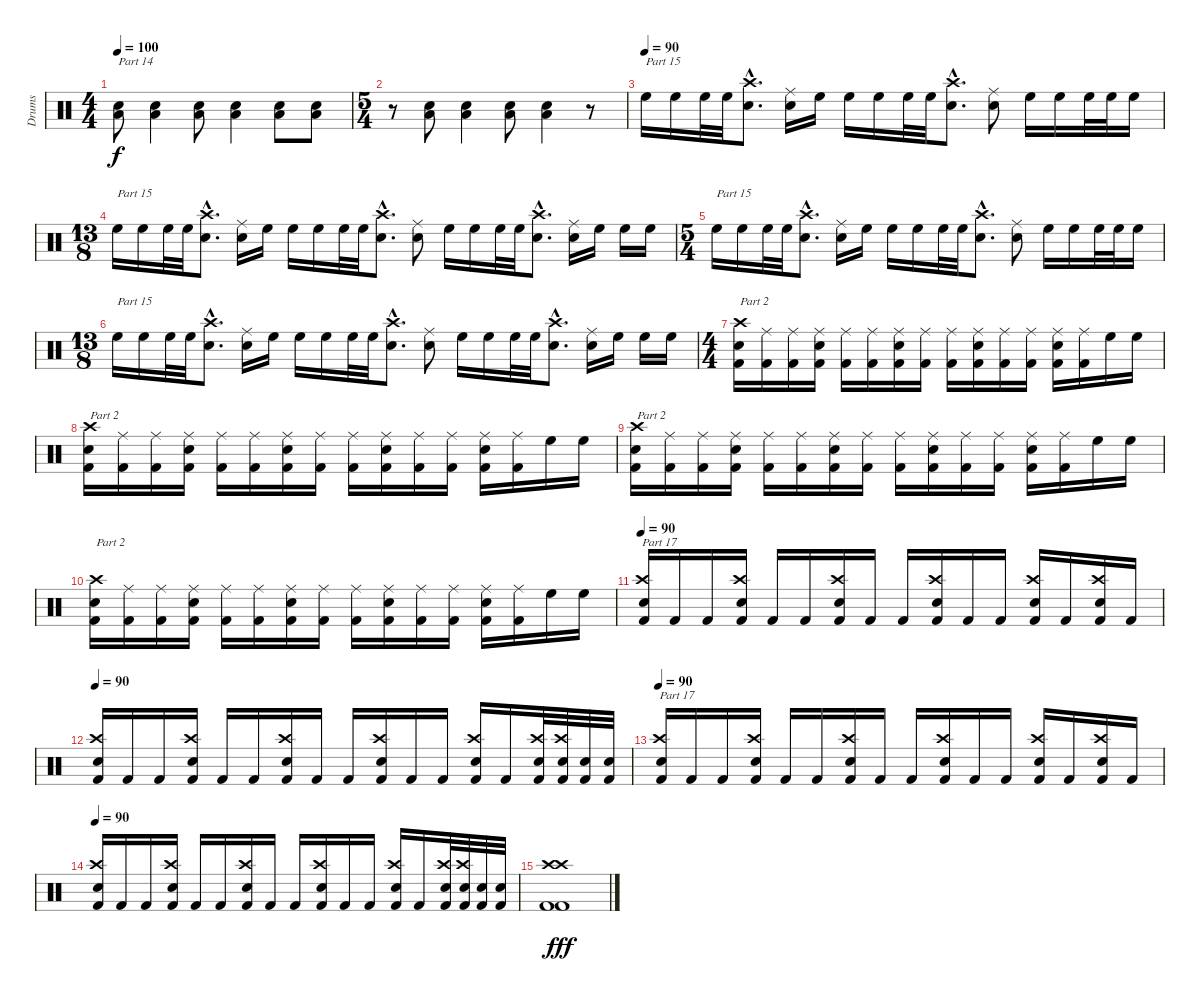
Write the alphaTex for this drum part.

\track ("Drums" "Drums") {instrument percussion}
\staff {score}
\articulation defaults
\ts (4 4)
\tempo 100
\clef neutral
\ks c
("Low Floor Tom (hit)" "Snare (hit) 2").8{txt "Part 14" dy f} ("Low Floor Tom (hit)" "Snare (hit) 2").4 ("Low Floor Tom (hit)" "Snare (hit) 2").8 ("Low Floor Tom (hit)" "Snare (hit) 2").4 ("Low Floor Tom (hit)" "Snare (hit) 2").8 ("Low Floor Tom (hit)" "Snare (hit) 2").8 |
\ts (5 4)
r.8 ("Low Floor Tom (hit)" "Snare (hit) 2").8 ("Low Floor Tom (hit)" "Snare (hit) 2").4 ("Low Floor Tom (hit)" "Snare (hit) 2").8 ("Low Floor Tom (hit)" "Snare (hit) 2").4 r.8 |
\tempo (90)
"High Floor Tom (hit)".16{txt "Part 15"} "High Floor Tom (hit)".16 "High Floor Tom (hit)".32 "High Floor Tom (hit)".32 ("Crash high (hit)"{hac} "Snare (hit) 2"{hac}).8{d} ("Ride (middle)" "Snare (hit) 2").16 "High Floor Tom (hit)".16 "High Floor Tom (hit)".16 "High Floor Tom (hit)".16 "High Floor Tom (hit)".32 "High Floor Tom (hit)".32 ("Crash high (hit)"{hac} "Snare (hit) 2"{hac}).8{d} ("Ride (middle)" "Snare (hit) 2").8 "High Floor Tom (hit)".16 "High Floor Tom (hit)".16 "High Floor Tom (hit)".32 "High Floor Tom (hit)".32 "High Floor Tom (hit)".16 |
\ts (13 8)
"High Floor Tom (hit)".16{txt "Part 15"} "High Floor Tom (hit)".16 "High Floor Tom (hit)".32 "High Floor Tom (hit)".32 ("Crash high (hit)"{hac} "Snare (hit) 2"{hac}).8{d} ("Ride (middle)" "Snare (hit) 2").16 "High Floor Tom (hit)".16 "High Floor Tom (hit)".16 "High Floor Tom (hit)".16 "High Floor Tom (hit)".32 "High Floor Tom (hit)".32 ("Crash high (hit)"{hac} "Snare (hit) 2"{hac}).8{d} ("Ride (middle)" "Snare (hit) 2").8 "High Floor Tom (hit)".16 "High Floor Tom (hit)".16 "High Floor Tom (hit)".32 "High Floor Tom (hit)".32 ("Crash high (hit)"{hac} "Snare (hit) 2"{hac}).8{d} ("Ride (middle)" "Snare (hit) 2").16 "High Floor Tom (hit)".16 "High Floor Tom (hit)".16 "High Floor Tom (hit)".16 |
\ts (5 4)
"High Floor Tom (hit)".16{txt "Part 15"} "High Floor Tom (hit)".16 "High Floor Tom (hit)".32 "High Floor Tom (hit)".32 ("Crash high (hit)"{hac} "Snare (hit) 2"{hac}).8{d} ("Ride (middle)" "Snare (hit) 2").16 "High Floor Tom (hit)".16 "High Floor Tom (hit)".16 "High Floor Tom (hit)".16 "High Floor Tom (hit)".32 "High Floor Tom (hit)".32 ("Crash high (hit)"{hac} "Snare (hit) 2"{hac}).8{d} ("Ride (middle)" "Snare (hit) 2").8 "High Floor Tom (hit)".16 "High Floor Tom (hit)".16 "High Floor Tom (hit)".32 "High Floor Tom (hit)".32 "High Floor Tom (hit)".16 |
\ts (13 8)
"High Floor Tom (hit)".16{txt "Part 15"} "High Floor Tom (hit)".16 "High Floor Tom (hit)".32 "High Floor Tom (hit)".32 ("Crash high (hit)"{hac} "Snare (hit) 2"{hac}).8{d} ("Ride (middle)" "Snare (hit) 2").16 "High Floor Tom (hit)".16 "High Floor Tom (hit)".16 "High Floor Tom (hit)".16 "High Floor Tom (hit)".32 "High Floor Tom (hit)".32 ("Crash high (hit)"{hac} "Snare (hit) 2"{hac}).8{d} ("Ride (middle)" "Snare (hit) 2").8 "High Floor Tom (hit)".16 "High Floor Tom (hit)".16 "High Floor Tom (hit)".32 "High Floor Tom (hit)".32 ("Crash high (hit)"{hac} "Snare (hit) 2"{hac}).8{d} ("Ride (middle)" "Snare (hit) 2").16 "High Floor Tom (hit)".16 "High Floor Tom (hit)".16 "High Floor Tom (hit)".16 |
\ts (4 4)
("Crash high (hit)" "Snare (hit) 2" "Kick (hit) 2").16{txt "Part 2"} ("Ride (middle)" "Kick (hit) 2").16 ("Ride (middle)" "Kick (hit) 2").16 ("Ride (middle)" "Snare (hit) 2" "Kick (hit) 2").16 ("Ride (middle)" "Kick (hit) 2").16 ("Ride (middle)" "Kick (hit) 2").16 ("Ride (middle)" "Snare (hit) 2" "Kick (hit) 2").16 ("Ride (middle)" "Kick (hit) 2").16 ("Ride (middle)" "Kick (hit) 2").16 ("Ride (middle)" "Snare (hit) 2" "Kick (hit) 2").16 ("Ride (middle)" "Kick (hit) 2").16 ("Ride (middle)" "Kick (hit) 2").16 ("Ride (middle)" "Snare (hit) 2" "Kick (hit) 2").16 ("Ride (middle)" "Kick (hit) 2").16 "High Floor Tom (hit)".16 "High Floor Tom (hit)".16 |
("Crash high (hit)" "Snare (hit) 2" "Kick (hit) 2").16{txt "Part 2"} ("Ride (middle)" "Kick (hit) 2").16 ("Ride (middle)" "Kick (hit) 2").16 ("Ride (middle)" "Snare (hit) 2" "Kick (hit) 2").16 ("Ride (middle)" "Kick (hit) 2").16 ("Ride (middle)" "Kick (hit) 2").16 ("Ride (middle)" "Snare (hit) 2" "Kick (hit) 2").16 ("Ride (middle)" "Kick (hit) 2").16 ("Ride (middle)" "Kick (hit) 2").16 ("Ride (middle)" "Snare (hit) 2" "Kick (hit) 2").16 ("Ride (middle)" "Kick (hit) 2").16 ("Ride (middle)" "Kick (hit) 2").16 ("Ride (middle)" "Snare (hit) 2" "Kick (hit) 2").16 ("Ride (middle)" "Kick (hit) 2").16 "High Floor Tom (hit)".16 "High Floor Tom (hit)".16 |
("Crash high (hit)" "Snare (hit) 2" "Kick (hit) 2").16{txt "Part 2"} ("Ride (middle)" "Kick (hit) 2").16 ("Ride (middle)" "Kick (hit) 2").16 ("Ride (middle)" "Snare (hit) 2" "Kick (hit) 2").16 ("Ride (middle)" "Kick (hit) 2").16 ("Ride (middle)" "Kick (hit) 2").16 ("Ride (middle)" "Snare (hit) 2" "Kick (hit) 2").16 ("Ride (middle)" "Kick (hit) 2").16 ("Ride (middle)" "Kick (hit) 2").16 ("Ride (middle)" "Snare (hit) 2" "Kick (hit) 2").16 ("Ride (middle)" "Kick (hit) 2").16 ("Ride (middle)" "Kick (hit) 2").16 ("Ride (middle)" "Snare (hit) 2" "Kick (hit) 2").16 ("Ride (middle)" "Kick (hit) 2").16 "High Floor Tom (hit)".16 "High Floor Tom (hit)".16 |
("Crash high (hit)" "Snare (hit) 2" "Kick (hit) 2").16{txt "Part 2"} ("Ride (middle)" "Kick (hit) 2").16 ("Ride (middle)" "Kick (hit) 2").16 ("Ride (middle)" "Snare (hit) 2" "Kick (hit) 2").16 ("Ride (middle)" "Kick (hit) 2").16 ("Ride (middle)" "Kick (hit) 2").16 ("Ride (middle)" "Snare (hit) 2" "Kick (hit) 2").16 ("Ride (middle)" "Kick (hit) 2").16 ("Ride (middle)" "Kick (hit) 2").16 ("Ride (middle)" "Snare (hit) 2" "Kick (hit) 2").16 ("Ride (middle)" "Kick (hit) 2").16 ("Ride (middle)" "Kick (hit) 2").16 ("Ride (middle)" "Snare (hit) 2" "Kick (hit) 2").16 ("Ride (middle)" "Kick (hit) 2").16 "High Floor Tom (hit)".16 "High Floor Tom (hit)".16 |
\tempo 90
("Crash high (hit)" "Snare (hit) 2" "Kick (hit) 2").16{txt "Part 17"} "Kick (hit) 2".16 "Kick (hit) 2".16 ("Crash high (hit)" "Snare (hit) 2" "Kick (hit) 2").16 "Kick (hit) 2".16 "Kick (hit) 2".16 ("Crash high (hit)" "Snare (hit) 2" "Kick (hit) 2").16 "Kick (hit) 2".16 "Kick (hit) 2".16 ("Crash high (hit)" "Snare (hit) 2" "Kick (hit) 2").16 "Kick (hit) 2".16 "Kick (hit) 2".16 ("Crash high (hit)" "Snare (hit) 2" "Kick (hit) 2").16 "Kick (hit) 2".16 ("Crash high (hit)" "Snare (hit) 2" "Kick (hit) 2").16 "Kick (hit) 2".16 |
\tempo 90
("Crash high (hit)" "Snare (hit) 2" "Kick (hit) 2").16 "Kick (hit) 2".16 "Kick (hit) 2".16 ("Crash high (hit)" "Snare (hit) 2" "Kick (hit) 2").16 "Kick (hit) 2".16 "Kick (hit) 2".16 ("Crash high (hit)" "Snare (hit) 2" "Kick (hit) 2").16 "Kick (hit) 2".16 "Kick (hit) 2".16 ("Crash high (hit)" "Snare (hit) 2" "Kick (hit) 2").16 "Kick (hit) 2".16 "Kick (hit) 2".16 ("Crash high (hit)" "Snare (hit) 2" "Kick (hit) 2").16 "Kick (hit) 2".16 ("Crash high (hit)" "Snare (hit) 2" "Kick (hit) 2").32 ("Crash high (hit)" "Snare (hit) 2" "Kick (hit) 2").32 ("Snare (hit) 2" "Kick (hit) 2").32 ("Snare (hit) 2" "Kick (hit) 2").32 |
\tempo 90
("Crash high (hit)" "Snare (hit) 2" "Kick (hit) 2").16{txt "Part 17"} "Kick (hit) 2".16 "Kick (hit) 2".16 ("Crash high (hit)" "Snare (hit) 2" "Kick (hit) 2").16 "Kick (hit) 2".16 "Kick (hit) 2".16 ("Crash high (hit)" "Snare (hit) 2" "Kick (hit) 2").16 "Kick (hit) 2".16 "Kick (hit) 2".16 ("Crash high (hit)" "Snare (hit) 2" "Kick (hit) 2").16 "Kick (hit) 2".16 "Kick (hit) 2".16 ("Crash high (hit)" "Snare (hit) 2" "Kick (hit) 2").16 "Kick (hit) 2".16 ("Crash high (hit)" "Snare (hit) 2" "Kick (hit) 2").16 "Kick (hit) 2".16 |
\tempo 90
("Crash high (hit)" "Snare (hit) 2" "Kick (hit) 2").16 "Kick (hit) 2".16 "Kick (hit) 2".16 ("Crash high (hit)" "Snare (hit) 2" "Kick (hit) 2").16 "Kick (hit) 2".16 "Kick (hit) 2".16 ("Crash high (hit)" "Snare (hit) 2" "Kick (hit) 2").16 "Kick (hit) 2".16 "Kick (hit) 2".16 ("Crash high (hit)" "Snare (hit) 2" "Kick (hit) 2").16 "Kick (hit) 2".16 "Kick (hit) 2".16 ("Crash high (hit)" "Snare (hit) 2" "Kick (hit) 2").16 "Kick (hit) 2".16 ("Crash high (hit)" "Snare (hit) 2" "Kick (hit) 2").32 ("Crash high (hit)" "Snare (hit) 2" "Kick (hit) 2").32 ("Snare (hit) 2" "Kick (hit) 2").32 ("Snare (hit) 2" "Kick (hit) 2").32 |
("Crash high (hit)" "Kick (hit) 2" "Crash high (hit)" "Kick (hit) 2").1{dy fff}
